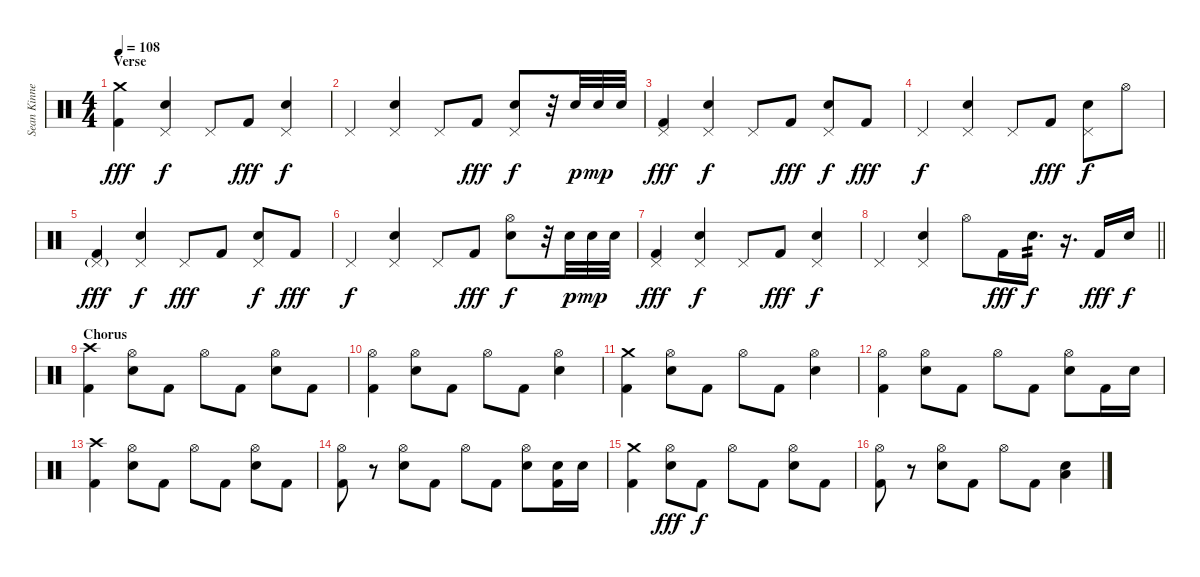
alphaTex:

\track ("Sean Kinney" "Sean Kinne") {instrument percussion}
\staff {score}
\articulation defaults
\ts (4 4)
\section ("" "Verse")
\tempo 108
\clef neutral
\ks c
("Crash medium (hit)" "Kick (hit) 2").4{dy fff} ("Pedal Hi-Hat (hit)" "Snare (hit) 2").4{dy f} "Pedal Hi-Hat (hit)".8 "Kick (hit) 2".8{dy fff} ("Pedal Hi-Hat (hit)" "Snare (hit) 2").4{dy f} |
"Pedal Hi-Hat (hit)".4 ("Pedal Hi-Hat (hit)" "Snare (hit) 2").4 "Pedal Hi-Hat (hit)".8 "Kick (hit) 2".8{dy fff} ("Pedal Hi-Hat (hit)" "Snare (hit) 2").8{dy f} r.32 "Snare (hit) 2".32{dy p} "Snare (hit) 2".32{dy mp} "Snare (hit) 2".32 |
("Pedal Hi-Hat (hit)" "Kick (hit) 2").4{dy fff} ("Pedal Hi-Hat (hit)" "Snare (hit) 2").4{dy f} "Pedal Hi-Hat (hit)".8 "Kick (hit) 2".8{dy fff} ("Pedal Hi-Hat (hit)" "Snare (hit) 2").8{dy f} "Kick (hit) 2".8{dy fff} |
"Pedal Hi-Hat (hit)".4{dy f} ("Pedal Hi-Hat (hit)" "Snare (hit) 2").4 "Pedal Hi-Hat (hit)".8 "Kick (hit) 2".8{dy fff} ("Pedal Hi-Hat (hit)" "Snare (hit) 2").8{dy f} "Hi-Hat (open)".8 |
("Pedal Hi-Hat (hit)"{g} "Kick (hit) 2").4{dy fff} ("Pedal Hi-Hat (hit)" "Snare (hit) 2").4{dy f} "Pedal Hi-Hat (hit)".8{dy fff} "Kick (hit) 2".8 ("Pedal Hi-Hat (hit)" "Snare (hit) 2").8{dy f} "Kick (hit) 2".8{dy fff} |
"Pedal Hi-Hat (hit)".4{dy f} ("Pedal Hi-Hat (hit)" "Snare (hit) 2").4 "Pedal Hi-Hat (hit)".8 "Kick (hit) 2".8{dy fff} ("Hi-Hat (open)" "Snare (hit) 2").8{dy f} r.32 "Snare (hit) 2".32{dy p} "Snare (hit) 2".32{dy mp} "Snare (hit) 2".32 |
("Pedal Hi-Hat (hit)" "Kick (hit) 2").4{dy fff} ("Pedal Hi-Hat (hit)" "Snare (hit) 2").4{dy f} "Pedal Hi-Hat (hit)".8 "Kick (hit) 2".8{dy fff} ("Pedal Hi-Hat (hit)" "Snare (hit) 2").4{dy f} |
\barLineRight lightlight "Pedal Hi-Hat (hit)".4
("Pedal Hi-Hat (hit)" "Snare (hit) 2").4 "Hi-Hat (open)".8 "Kick (hit) 2".16{dy fff} "Snare (hit) 2".16{d tp 2 dy f} r.16{d} "Kick (hit) 2".16{dy fff} "Snare (hit) 2".16{dy f} |
\section ("" "Chorus")
("Crash high (hit)" "Kick (hit) 2").4 ("Hi-Hat (open)" "Snare (hit) 2").8 "Kick (hit) 2".8 "Hi-Hat (open)".8 "Kick (hit) 2".8 ("Hi-Hat (open)" "Snare (hit) 2").8 "Kick (hit) 2".8 |
("Hi-Hat (open)" "Kick (hit) 2").4 ("Hi-Hat (open)" "Snare (hit) 2").8 "Kick (hit) 2".8 "Hi-Hat (open)".8 "Kick (hit) 2".8 ("Hi-Hat (open)" "Snare (hit) 2").4 |
("Crash medium (hit)" "Kick (hit) 2").4 ("Hi-Hat (open)" "Snare (hit) 2").8 "Kick (hit) 2".8 "Hi-Hat (open)".8 "Kick (hit) 2".8 ("Hi-Hat (open)" "Snare (hit) 2").4 |
("Hi-Hat (open)" "Kick (hit) 2").4 ("Hi-Hat (open)" "Snare (hit) 2").8 "Kick (hit) 2".8 "Hi-Hat (open)".8 "Kick (hit) 2".8 ("Hi-Hat (open)" "Snare (hit) 2").8 "Kick (hit) 2".16 "Snare (hit) 2".16 |
("Crash high (hit)" "Kick (hit) 2").4 ("Hi-Hat (open)" "Snare (hit) 2").8 "Kick (hit) 2".8 "Hi-Hat (open)".8 "Kick (hit) 2".8 ("Hi-Hat (open)" "Snare (hit) 2").8 "Kick (hit) 2".8 |
("Hi-Hat (open)" "Kick (hit) 2").8 r.8 ("Hi-Hat (open)" "Snare (hit) 2").8 "Kick (hit) 2".8 "Hi-Hat (open)".8 "Kick (hit) 2".8 ("Hi-Hat (open)" "Snare (hit) 2").8 ("Snare (hit) 2" "Kick (hit) 2").16 "Snare (hit) 2".16 |
("Crash medium (hit)" "Kick (hit) 2").4 ("Hi-Hat (open)" "Snare (hit) 2").8{dy fff} "Kick (hit) 2".8{dy f} "Hi-Hat (open)".8 "Kick (hit) 2".8 ("Hi-Hat (open)" "Snare (hit) 2").8 "Kick (hit) 2".8 |
("Hi-Hat (open)" "Kick (hit) 2").8 r.8 ("Hi-Hat (open)" "Snare (hit) 2").8 "Kick (hit) 2".8 "Hi-Hat (open)".8 "Kick (hit) 2".8 ("Low Tom (hit)" "Snare (hit) 2").4
